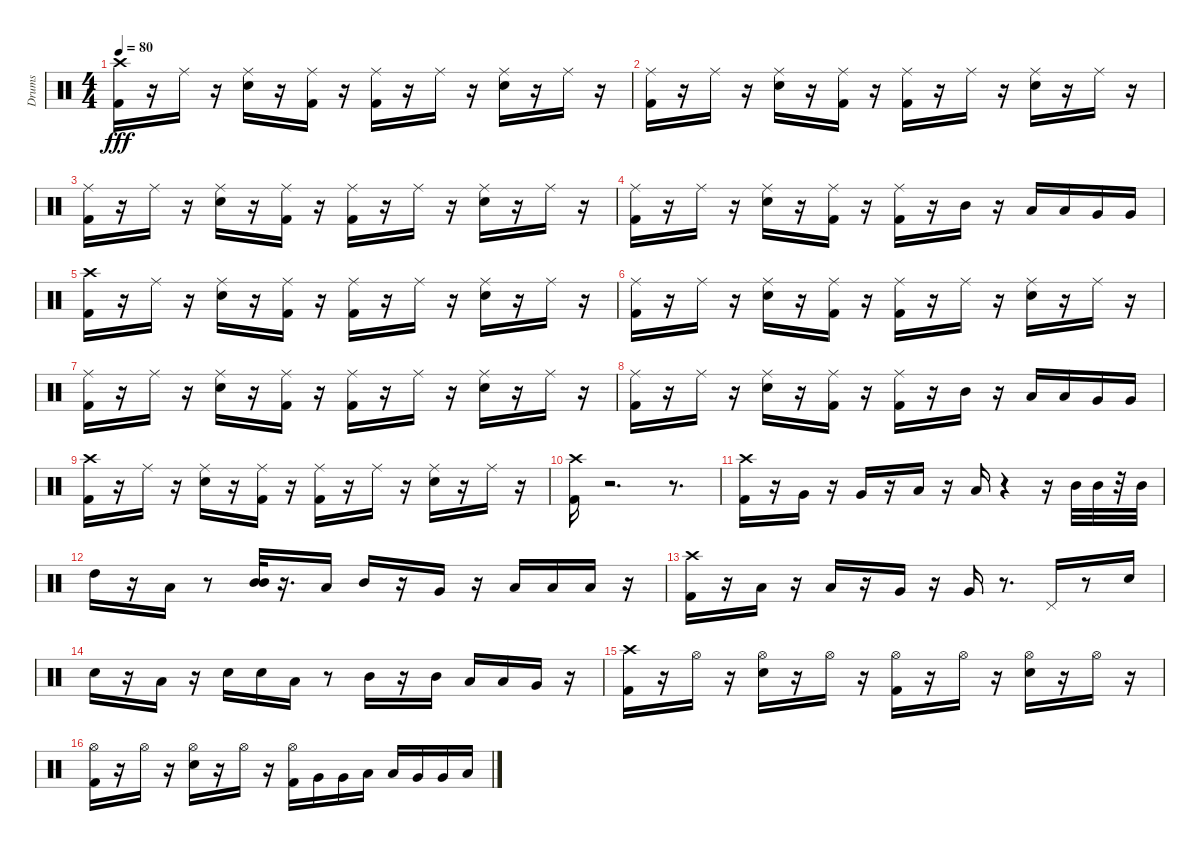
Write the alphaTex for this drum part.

\track ("Drums" "Drums") {instrument percussion}
\staff {score}
\articulation defaults
\ts (4 4)
\tempo 80
\clef neutral
\ks c
("Crash high (hit)" "Kick (hit) 2").16{dy fff} r.16 "Ride (middle)".16 r.16 ("Electric Snare (hit)" "Ride (middle)").16 r.16 ("Kick (hit) 2" "Ride (middle)").16 r.16 ("Kick (hit) 2" "Ride (middle)").16 r.16 "Ride (middle)".16 r.16 ("Electric Snare (hit)" "Ride (middle)").16 r.16 "Ride (middle)".16 r.16 |
("Ride (middle)" "Kick (hit) 2").16 r.16 "Ride (middle)".16 r.16 ("Ride (middle)" "Electric Snare (hit)").16 r.16 ("Ride (middle)" "Kick (hit) 2").16 r.16 ("Ride (middle)" "Kick (hit) 2").16 r.16 "Ride (middle)".16 r.16 ("Ride (middle)" "Electric Snare (hit)").16 r.16 "Ride (middle)".16 r.16 |
("Kick (hit) 2" "Ride (middle)").16 r.16 "Ride (middle)".16 r.16 ("Electric Snare (hit)" "Ride (middle)").16 r.16 ("Kick (hit) 2" "Ride (middle)").16 r.16 ("Kick (hit) 2" "Ride (middle)").16 r.16 "Ride (middle)".16 r.16 ("Electric Snare (hit)" "Ride (middle)").16 r.16 "Ride (middle)".16 r.16 |
("Kick (hit) 2" "Ride (middle)").16 r.16 "Ride (middle)".16 r.16 ("Electric Snare (hit)" "Ride (middle)").16 r.16 ("Kick (hit) 2" "Ride (middle)").16 r.16 ("Ride (middle)" "Kick (hit) 2").16 r.16 "Mid Tom (hit)".16 r.16 "Low Tom (hit)".16 "Low Tom (hit)".16 "Very Low Tom (hit)".16 "Very Low Tom (hit)".16 |
("Kick (hit) 2" "Crash high (hit)").16 r.16 "Ride (middle)".16 r.16 ("Ride (middle)" "Electric Snare (hit)").16 r.16 ("Ride (middle)" "Kick (hit) 2").16 r.16 ("Ride (middle)" "Kick (hit) 2").16 r.16 "Ride (middle)".16 r.16 ("Ride (middle)" "Electric Snare (hit)").16 r.16 "Ride (middle)".16 r.16 |
("Kick (hit) 2" "Ride (middle)").16 r.16 "Ride (middle)".16 r.16 ("Electric Snare (hit)" "Ride (middle)").16 r.16 ("Kick (hit) 2" "Ride (middle)").16 r.16 ("Kick (hit) 2" "Ride (middle)").16 r.16 "Ride (middle)".16 r.16 ("Electric Snare (hit)" "Ride (middle)").16 r.16 "Ride (middle)".16 r.16 |
("Ride (middle)" "Kick (hit) 2").16 r.16 "Ride (middle)".16 r.16 ("Ride (middle)" "Electric Snare (hit)").16 r.16 ("Ride (middle)" "Kick (hit) 2").16 r.16 ("Ride (middle)" "Kick (hit) 2").16 r.16 "Ride (middle)".16 r.16 ("Ride (middle)" "Electric Snare (hit)").16 r.16 "Ride (middle)".16 r.16 |
("Ride (middle)" "Kick (hit) 2").16 r.16 "Ride (middle)".16 r.16 ("Ride (middle)" "Electric Snare (hit)").16 r.16 ("Ride (middle)" "Kick (hit) 2").16 r.16 ("Kick (hit) 2" "Ride (middle)").16 r.16 "Mid Tom (hit)".16 r.16 "Low Tom (hit)".16 "Low Tom (hit)".16 "Very Low Tom (hit)".16 "Very Low Tom (hit)".16 |
("Crash high (hit)" "Kick (hit) 2").16 r.16 "Ride (middle)".16 r.16 ("Electric Snare (hit)" "Ride (middle)").16 r.16 ("Kick (hit) 2" "Ride (middle)").16 r.16 ("Kick (hit) 2" "Ride (middle)").16 r.16 "Ride (middle)".16 r.16 ("Electric Snare (hit)" "Ride (middle)").16 r.16 "Ride (middle)".16 r.16 |
("Crash high (hit)" "Kick (hit) 2").16 r.2{d} r.8{d} |
("Crash high (hit)" "Kick (hit) 2").16 r.16 "Very Low Tom (hit)".16 r.16 "Very Low Tom (hit)".16 r.16 "Low Floor Tom (hit)".16 r.16 "Low Floor Tom (hit)".16 r.4 r.16 "Mid Tom (hit)".32 "Mid Tom (hit)".32 r.32 "Mid Tom (hit)".32 |
"High Tom (hit)".16 r.16 "Low Tom (hit)".16 r.8 ("Mid Tom (hit)" "Mid Tom (hit)").32 r.16{d} "Low Tom (hit)".16 "Mid Tom (hit)".16 r.16 "Very Low Tom (hit)".16 r.16 "Low Tom (hit)".16 "Low Tom (hit)".16 "Low Floor Tom (hit)".16 r.16 |
("Crash high (hit)" "Kick (hit) 2").16 r.16 "Low Floor Tom (hit)".16 r.16 "Low Floor Tom (hit)".16 r.16 "Very Low Tom (hit)".16 r.16 "Very Low Tom (hit)".16 r.8{d} "Pedal Hi-Hat (hit)".16 r.8 "Electric Snare (hit)".16 |
"Electric Snare (hit)".16 r.16 "Low Tom (hit)".16 r.16 "Electric Snare (hit)".16 "Electric Snare (hit)".16 "Low Tom (hit)".16 r.8 "Mid Tom (hit)".16 r.16 "Mid Tom (hit)".16 "Low Tom (hit)".16 "Low Tom (hit)".16 "Very Low Tom (hit)".16 r.16 |
("Kick (hit) 2" "Crash high (hit)").16 r.16 "Hi-Hat (open)".16 r.16 ("Electric Snare (hit)" "Hi-Hat (open)").16 r.16 "Hi-Hat (open)".16 r.16 ("Kick (hit) 2" "Hi-Hat (open)").16 r.16 "Hi-Hat (open)".16 r.16 ("Electric Snare (hit)" "Hi-Hat (open)").16 r.16 "Hi-Hat (open)".16 r.16 |
("Hi-Hat (open)" "Kick (hit) 2").16 r.16 "Hi-Hat (open)".16 r.16 ("Hi-Hat (open)" "Electric Snare (hit)").16 r.16 "Hi-Hat (open)".16 r.16 ("Hi-Hat (open)" "Kick (hit) 2").16 "Very Low Tom (hit)".16 "Very Low Tom (hit)".16 "Low Tom (hit)".16 "Low Tom (hit)".16 "Very Low Tom (hit)".16 "Very Low Tom (hit)".16 "Low Floor Tom (hit)".16
